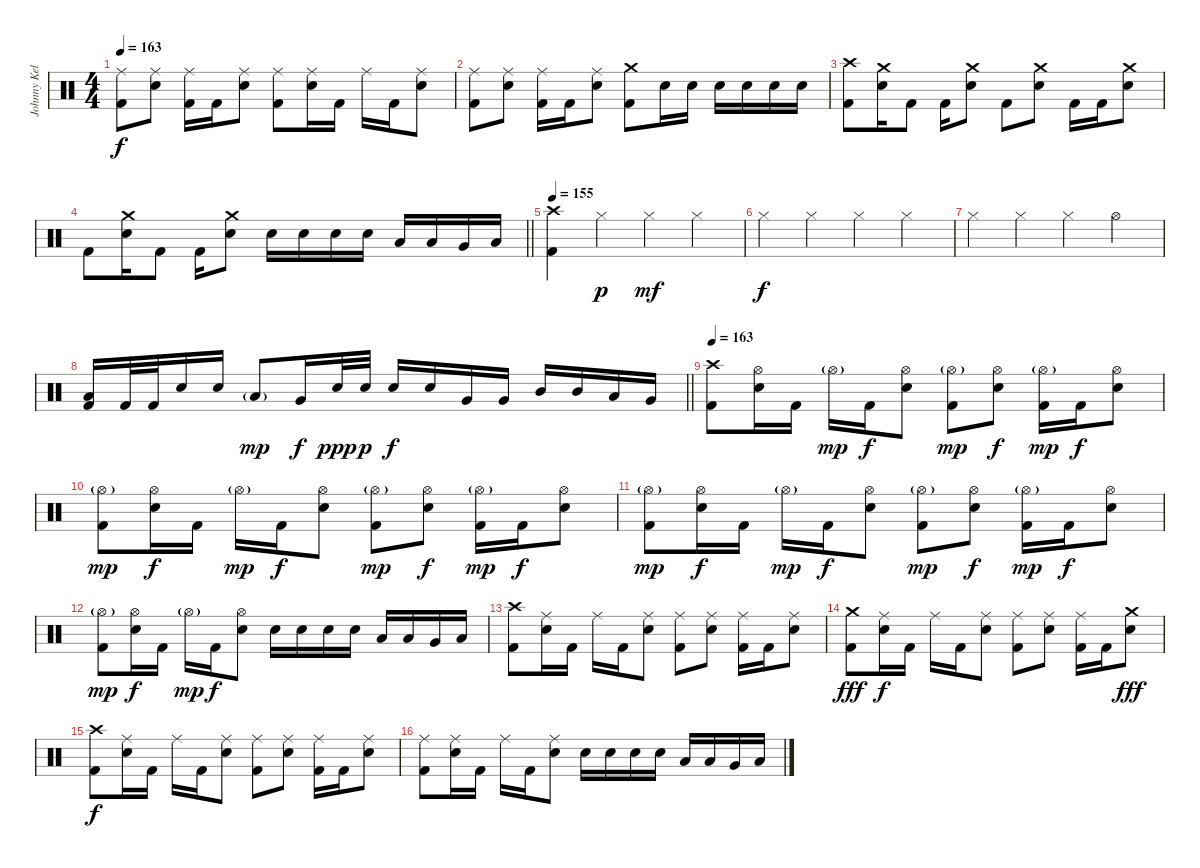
\track ("Johnny Kelly" "Johnny Kel") {instrument percussion}
\staff {score}
\articulation defaults
\ts (4 4)
\tempo 163
\clef neutral
\ks c
("Ride (middle)" "Kick (hit) 2").8{dy f} ("Ride (middle)" "Electric Snare (hit)").8 ("Ride (middle)" "Kick (hit) 2").16 "Kick (hit) 2".16 ("Ride (middle)" "Electric Snare (hit)").8 ("Ride (middle)" "Kick (hit) 2").8 ("Ride (middle)" "Electric Snare (hit)").16 "Kick (hit) 2".16 "Ride (middle)".16 "Kick (hit) 2".16 ("Ride (middle)" "Electric Snare (hit)").8 |
("Ride (middle)" "Kick (hit) 2").8 ("Ride (middle)" "Electric Snare (hit)").8 ("Ride (middle)" "Kick (hit) 2").16 "Kick (hit) 2".16 ("Ride (middle)" "Electric Snare (hit)").8 ("Crash medium (hit)" "Kick (hit) 2").8 "Electric Snare (hit)".16 "Electric Snare (hit)".16 "Electric Snare (hit)".16 "Electric Snare (hit)".16 "Electric Snare (hit)".16 "Electric Snare (hit)".16 |
("Crash high (hit)" "Kick (hit) 2").8 ("Crash medium (hit)" "Electric Snare (hit)").16 "Kick (hit) 2".8 "Kick (hit) 2".16 ("Crash medium (hit)" "Electric Snare (hit)").8 "Kick (hit) 2".8 ("Crash medium (hit)" "Electric Snare (hit)").8 "Kick (hit) 2".16 "Kick (hit) 2".16 ("Crash medium (hit)" "Electric Snare (hit)").8 |
\barLineRight lightlight "Kick (hit) 2".8
("Crash medium (hit)" "Electric Snare (hit)").16 "Kick (hit) 2".8 "Kick (hit) 2".16 ("Crash medium (hit)" "Electric Snare (hit)").8 "Electric Snare (hit)".16 "Electric Snare (hit)".16 "Electric Snare (hit)".16 "Electric Snare (hit)".16 "Low Tom (hit)".16 "Low Tom (hit)".16 "Very Low Tom (hit)".16 "Low Floor Tom (hit)".16 |
\section ("" "")
\tempo 155
("Crash high (hit)" "Kick (hit) 2").4 "Hi-Hat (closed)".4{dy p} "Hi-Hat (closed)".4{dy mf} "Hi-Hat (closed)".4 |
"Hi-Hat (closed)".4{dy f} "Hi-Hat (closed)".4 "Hi-Hat (closed)".4 "Hi-Hat (closed)".4 |
"Hi-Hat (closed)".4 "Hi-Hat (closed)".4 "Hi-Hat (closed)".4 "Hi-Hat (open)".4 |
\barLineRight lightlight
("Low Floor Tom (hit)" "Kick (hit) 2").16 "Kick (hit) 2".32 "Kick (hit) 2".32 "Electric Snare (hit)".16 "Electric Snare (hit)".16 "Low Floor Tom (hit)"{g}.8{dy mp} "Very Low Tom (hit)".16{dy f} "Electric Snare (hit)".32{dy ppp} "Electric Snare (hit)".32{dy p} "Electric Snare (hit)".16{dy f} "Electric Snare (hit)".16 "Very Low Tom (hit)".16 "Very Low Tom (hit)".16 "Mid Tom (hit)".16 "Mid Tom (hit)".16 "Low Tom (hit)".16 "Very Low Tom (hit)".16 |
\section ("" "")
\tempo 163
("Crash high (hit)" "Kick (hit) 2").8 ("Hi-Hat (open)" "Electric Snare (hit)").16 "Kick (hit) 2".16 "Hi-Hat (open)"{g}.16{dy mp} "Kick (hit) 2".16{dy f} ("Hi-Hat (open)" "Electric Snare (hit)").8 ("Hi-Hat (open)"{g} "Kick (hit) 2").8{dy mp} ("Hi-Hat (open)" "Electric Snare (hit)").8{dy f} ("Hi-Hat (open)"{g} "Kick (hit) 2").16{dy mp} "Kick (hit) 2".16{dy f} ("Hi-Hat (open)" "Electric Snare (hit)").8 |
("Hi-Hat (open)"{g} "Kick (hit) 2").8{dy mp} ("Hi-Hat (open)" "Electric Snare (hit)").16{dy f} "Kick (hit) 2".16 "Hi-Hat (open)"{g}.16{dy mp} "Kick (hit) 2".16{dy f} ("Hi-Hat (open)" "Electric Snare (hit)").8 ("Hi-Hat (open)"{g} "Kick (hit) 2").8{dy mp} ("Hi-Hat (open)" "Electric Snare (hit)").8{dy f} ("Hi-Hat (open)"{g} "Kick (hit) 2").16{dy mp} "Kick (hit) 2".16{dy f} ("Hi-Hat (open)" "Electric Snare (hit)").8 |
("Hi-Hat (open)"{g} "Kick (hit) 2").8{dy mp} ("Hi-Hat (open)" "Electric Snare (hit)").16{dy f} "Kick (hit) 2".16 "Hi-Hat (open)"{g}.16{dy mp} "Kick (hit) 2".16{dy f} ("Hi-Hat (open)" "Electric Snare (hit)").8 ("Hi-Hat (open)"{g} "Kick (hit) 2").8{dy mp} ("Hi-Hat (open)" "Electric Snare (hit)").8{dy f} ("Hi-Hat (open)"{g} "Kick (hit) 2").16{dy mp} "Kick (hit) 2".16{dy f} ("Hi-Hat (open)" "Electric Snare (hit)").8 |
("Hi-Hat (open)"{g} "Kick (hit) 2").8{dy mp} ("Hi-Hat (open)" "Electric Snare (hit)").16{dy f} "Kick (hit) 2".16 "Hi-Hat (open)"{g}.16{dy mp} "Kick (hit) 2".16{dy f} ("Hi-Hat (open)" "Electric Snare (hit)").8 "Electric Snare (hit)".16 "Electric Snare (hit)".16 "Electric Snare (hit)".16 "Electric Snare (hit)".16 "Low Tom (hit)".16 "Low Tom (hit)".16 "Very Low Tom (hit)".16 "Low Floor Tom (hit)".16 |
("Crash high (hit)" "Kick (hit) 2").8 ("Ride (middle)" "Electric Snare (hit)").16 "Kick (hit) 2".16 "Ride (middle)".16 "Kick (hit) 2".16 ("Ride (middle)" "Electric Snare (hit)").8 ("Ride (middle)" "Kick (hit) 2").8 ("Ride (middle)" "Electric Snare (hit)").8 ("Ride (middle)" "Kick (hit) 2").16 "Kick (hit) 2".16 ("Ride (middle)" "Electric Snare (hit)").8 |
("Crash medium (hit)" "Kick (hit) 2").8{dy fff} ("Ride (middle)" "Electric Snare (hit)").16{dy f} "Kick (hit) 2".16 "Ride (middle)".16 "Kick (hit) 2".16 ("Ride (middle)" "Electric Snare (hit)").8 ("Ride (middle)" "Kick (hit) 2").8 ("Ride (middle)" "Electric Snare (hit)").8 ("Ride (middle)" "Kick (hit) 2").16 "Kick (hit) 2".16 ("Crash medium (hit)" "Electric Snare (hit)").8{dy fff} |
("Crash high (hit)" "Kick (hit) 2").8{dy f} ("Ride (middle)" "Electric Snare (hit)").16 "Kick (hit) 2".16 "Ride (middle)".16 "Kick (hit) 2".16 ("Ride (middle)" "Electric Snare (hit)").8 ("Ride (middle)" "Kick (hit) 2").8 ("Ride (middle)" "Electric Snare (hit)").8 ("Ride (middle)" "Kick (hit) 2").16 "Kick (hit) 2".16 ("Ride (middle)" "Electric Snare (hit)").8 |
("Ride (middle)" "Kick (hit) 2").8 ("Ride (middle)" "Electric Snare (hit)").16 "Kick (hit) 2".16 "Ride (middle)".16 "Kick (hit) 2".16 ("Ride (middle)" "Electric Snare (hit)").8 "Electric Snare (hit)".16 "Electric Snare (hit)".16 "Electric Snare (hit)".16 "Electric Snare (hit)".16 "Low Tom (hit)".16 "Low Tom (hit)".16 "Very Low Tom (hit)".16 "Low Floor Tom (hit)".16
